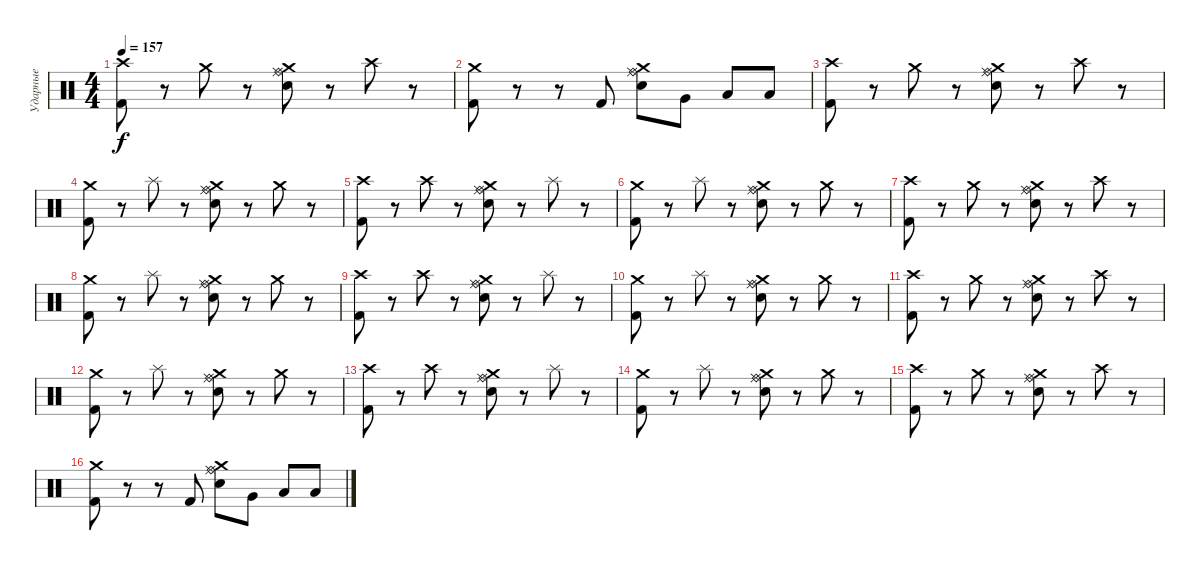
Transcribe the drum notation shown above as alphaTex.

\track ("Ударные" "Ударные") {instrument percussion}
\staff {score}
\articulation defaults
\ts (4 4)
\tempo 157
\clef neutral
\ks c
("Crash high (hit)" "Kick (hit) 2").8{dy f} r.8 "Crash medium (hit)".8 r.8 ("Crash medium (hit)" "Ride (bell)" "Electric Snare (hit)" "Ride (middle)").8 r.8 "Crash high (hit)".8 r.8 |
("Crash medium (hit)" "Kick (hit) 2").8 r.8 r.8 "Kick (hit) 2".8 ("Crash medium (hit)" "Ride (bell)" "Electric Snare (hit)" "Ride (middle)").8 "Very Low Tom (hit)".8 "Low Tom (hit)".8 "Low Floor Tom (hit)".8 |
("Crash high (hit)" "Kick (hit) 2").8 r.8 "Crash medium (hit)".8 r.8 ("Crash medium (hit)" "Ride (bell)" "Electric Snare (hit)" "Ride (middle)").8 r.8 "Crash high (hit)".8 r.8 |
("Crash medium (hit)" "Kick (hit) 2").8 r.8 "Splash (hit)".8 r.8 ("Crash medium (hit)" "Ride (bell)" "Electric Snare (hit)" "Ride (middle)").8 r.8 "Crash medium (hit)".8 r.8 |
("Crash high (hit)" "Kick (hit) 2").8 r.8 "Crash high (hit)".8 r.8 ("Crash medium (hit)" "Ride (bell)" "Electric Snare (hit)" "Ride (middle)").8 r.8 "Splash (hit)".8 r.8 |
("Crash medium (hit)" "Kick (hit) 2").8 r.8 "Splash (hit)".8 r.8 ("Crash medium (hit)" "Ride (bell)" "Electric Snare (hit)" "Ride (middle)").8 r.8 "Crash medium (hit)".8 r.8 |
("Crash high (hit)" "Kick (hit) 2").8 r.8 "Crash medium (hit)".8 r.8 ("Crash medium (hit)" "Ride (bell)" "Electric Snare (hit)" "Ride (middle)").8 r.8 "Crash high (hit)".8 r.8 |
("Crash medium (hit)" "Kick (hit) 2").8 r.8 "Splash (hit)".8 r.8 ("Crash medium (hit)" "Ride (bell)" "Electric Snare (hit)" "Ride (middle)").8 r.8 "Crash medium (hit)".8 r.8 |
("Crash high (hit)" "Kick (hit) 2").8 r.8 "Crash high (hit)".8 r.8 ("Crash medium (hit)" "Ride (bell)" "Electric Snare (hit)" "Ride (middle)").8 r.8 "Splash (hit)".8 r.8 |
("Crash medium (hit)" "Kick (hit) 2").8 r.8 "Splash (hit)".8 r.8 ("Crash medium (hit)" "Ride (bell)" "Electric Snare (hit)" "Ride (middle)").8 r.8 "Crash medium (hit)".8 r.8 |
("Crash high (hit)" "Kick (hit) 2").8 r.8 "Crash medium (hit)".8 r.8 ("Crash medium (hit)" "Ride (bell)" "Electric Snare (hit)" "Ride (middle)").8 r.8 "Crash high (hit)".8 r.8 |
("Crash medium (hit)" "Kick (hit) 2").8 r.8 "Splash (hit)".8 r.8 ("Crash medium (hit)" "Ride (bell)" "Electric Snare (hit)" "Ride (middle)").8 r.8 "Crash medium (hit)".8 r.8 |
("Crash high (hit)" "Kick (hit) 2").8 r.8 "Crash high (hit)".8 r.8 ("Crash medium (hit)" "Ride (bell)" "Electric Snare (hit)" "Ride (middle)").8 r.8 "Splash (hit)".8 r.8 |
("Crash medium (hit)" "Kick (hit) 2").8 r.8 "Splash (hit)".8 r.8 ("Crash medium (hit)" "Ride (bell)" "Electric Snare (hit)" "Ride (middle)").8 r.8 "Crash medium (hit)".8 r.8 |
("Crash high (hit)" "Kick (hit) 2").8 r.8 "Crash medium (hit)".8 r.8 ("Crash medium (hit)" "Ride (bell)" "Electric Snare (hit)" "Ride (middle)").8 r.8 "Crash high (hit)".8 r.8 |
("Crash medium (hit)" "Kick (hit) 2").8 r.8 r.8 "Kick (hit) 2".8 ("Crash medium (hit)" "Ride (bell)" "Electric Snare (hit)" "Ride (middle)").8 "Very Low Tom (hit)".8 "Low Tom (hit)".8 "Low Floor Tom (hit)".8
